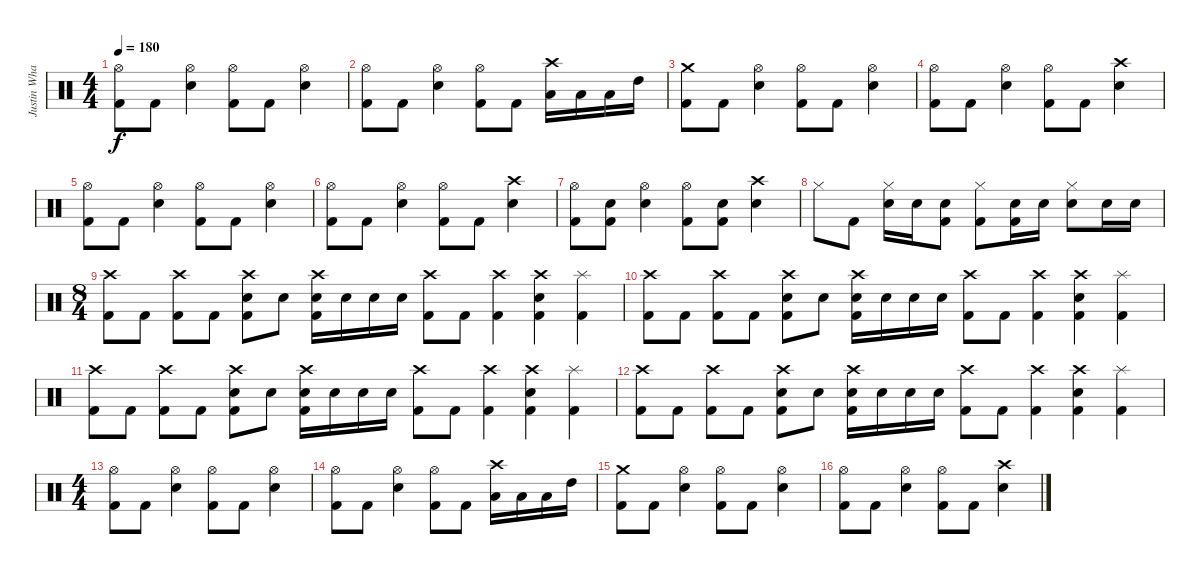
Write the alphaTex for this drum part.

\track ("Justin Wharton" "Justin Wha") {instrument percussion}
\staff {score}
\articulation defaults
\ts (4 4)
\tempo 180
\clef neutral
\ks c
("Kick (hit) 2" "Hi-Hat (open)").8{dy f} "Kick (hit) 2".8 ("Electric Snare (hit)" "Hi-Hat (open)").4 ("Kick (hit) 2" "Hi-Hat (open)").8 "Kick (hit) 2".8 ("Electric Snare (hit)" "Hi-Hat (open)").4 |
("Kick (hit) 2" "Hi-Hat (open)").8 "Kick (hit) 2".8 ("Electric Snare (hit)" "Hi-Hat (open)").4 ("Kick (hit) 2" "Hi-Hat (open)").8 "Kick (hit) 2".8 ("Low Floor Tom (hit)" "Crash high (hit)").16 "Low Floor Tom (hit)".16 "Low Tom (hit)".16 "High Tom (hit)".16 |
("Kick (hit) 2" "Crash medium (hit)").8 "Kick (hit) 2".8 ("Electric Snare (hit)" "Hi-Hat (open)").4 ("Kick (hit) 2" "Hi-Hat (open)").8 "Kick (hit) 2".8 ("Electric Snare (hit)" "Hi-Hat (open)").4 |
("Kick (hit) 2" "Hi-Hat (open)").8 "Kick (hit) 2".8 ("Electric Snare (hit)" "Hi-Hat (open)").4 ("Kick (hit) 2" "Hi-Hat (open)").8 "Kick (hit) 2".8 ("Electric Snare (hit)" "Crash high (hit)").4 |
("Kick (hit) 2" "Hi-Hat (open)").8 "Kick (hit) 2".8 ("Electric Snare (hit)" "Hi-Hat (open)").4 ("Kick (hit) 2" "Hi-Hat (open)").8 "Kick (hit) 2".8 ("Electric Snare (hit)" "Hi-Hat (open)").4 |
("Kick (hit) 2" "Hi-Hat (open)").8 "Kick (hit) 2".8 ("Electric Snare (hit)" "Hi-Hat (open)").4 ("Kick (hit) 2" "Hi-Hat (open)").8 "Kick (hit) 2".8 ("Electric Snare (hit)" "Crash high (hit)").4 |
("Kick (hit) 2" "Hi-Hat (open)").8 ("Kick (hit) 2" "Electric Snare (hit)").8 ("Electric Snare (hit)" "Hi-Hat (open)").4 ("Kick (hit) 2" "Hi-Hat (open)").8 ("Kick (hit) 2" "Electric Snare (hit)").8 ("Electric Snare (hit)" "Crash high (hit)").4 |
"Hi-Hat (closed)".8 "Kick (hit) 2".8 ("Electric Snare (hit)" "Hi-Hat (closed)").16 "Electric Snare (hit)".16 ("Kick (hit) 2" "Electric Snare (hit)").8 ("Kick (hit) 2" "Hi-Hat (closed)").8 ("Kick (hit) 2" "Electric Snare (hit)").16 "Electric Snare (hit)".16 ("Electric Snare (hit)" "Hi-Hat (closed)").8 "Electric Snare (hit)".16 "Electric Snare (hit)".16 |
\ts (8 4)
("Kick (hit) 2" "Crash high (hit)").8 "Kick (hit) 2".8 ("Kick (hit) 2" "Crash high (hit)").8 "Kick (hit) 2".8 ("Kick (hit) 2" "Electric Snare (hit)" "Crash high (hit)").8 "Electric Snare (hit)".8 ("Kick (hit) 2" "Electric Snare (hit)" "Crash high (hit)").16 "Electric Snare (hit)".16 "Electric Snare (hit)".16 "Electric Snare (hit)".16 ("Kick (hit) 2" "Crash high (hit)").8 "Kick (hit) 2".8 ("Kick (hit) 2" "Crash high (hit)").4 ("Kick (hit) 2" "Electric Snare (hit)" "Crash high (hit)").4 ("Kick (hit) 2" "Splash (hit)").4 |
("Kick (hit) 2" "Crash high (hit)").8 "Kick (hit) 2".8 ("Kick (hit) 2" "Crash high (hit)").8 "Kick (hit) 2".8 ("Kick (hit) 2" "Electric Snare (hit)" "Crash high (hit)").8 "Electric Snare (hit)".8 ("Kick (hit) 2" "Electric Snare (hit)" "Crash high (hit)").16 "Electric Snare (hit)".16 "Electric Snare (hit)".16 "Electric Snare (hit)".16 ("Kick (hit) 2" "Crash high (hit)").8 "Kick (hit) 2".8 ("Kick (hit) 2" "Crash high (hit)").4 ("Kick (hit) 2" "Electric Snare (hit)" "Crash high (hit)").4 ("Kick (hit) 2" "Splash (hit)").4 |
("Kick (hit) 2" "Crash high (hit)").8 "Kick (hit) 2".8 ("Kick (hit) 2" "Crash high (hit)").8 "Kick (hit) 2".8 ("Kick (hit) 2" "Electric Snare (hit)" "Crash high (hit)").8 "Electric Snare (hit)".8 ("Kick (hit) 2" "Electric Snare (hit)" "Crash high (hit)").16 "Electric Snare (hit)".16 "Electric Snare (hit)".16 "Electric Snare (hit)".16 ("Kick (hit) 2" "Crash high (hit)").8 "Kick (hit) 2".8 ("Kick (hit) 2" "Crash high (hit)").4 ("Kick (hit) 2" "Electric Snare (hit)" "Crash high (hit)").4 ("Kick (hit) 2" "Splash (hit)").4 |
("Kick (hit) 2" "Crash high (hit)").8 "Kick (hit) 2".8 ("Kick (hit) 2" "Crash high (hit)").8 "Kick (hit) 2".8 ("Kick (hit) 2" "Electric Snare (hit)" "Crash high (hit)").8 "Electric Snare (hit)".8 ("Kick (hit) 2" "Electric Snare (hit)" "Crash high (hit)").16 "Electric Snare (hit)".16 "Electric Snare (hit)".16 "Electric Snare (hit)".16 ("Kick (hit) 2" "Crash high (hit)").8 "Kick (hit) 2".8 ("Kick (hit) 2" "Crash high (hit)").4 ("Kick (hit) 2" "Electric Snare (hit)" "Crash high (hit)").4 ("Kick (hit) 2" "Splash (hit)").4 |
\ts (4 4)
("Kick (hit) 2" "Hi-Hat (open)").8 "Kick (hit) 2".8 ("Electric Snare (hit)" "Hi-Hat (open)").4 ("Kick (hit) 2" "Hi-Hat (open)").8 "Kick (hit) 2".8 ("Electric Snare (hit)" "Hi-Hat (open)").4 |
("Kick (hit) 2" "Hi-Hat (open)").8 "Kick (hit) 2".8 ("Electric Snare (hit)" "Hi-Hat (open)").4 ("Kick (hit) 2" "Hi-Hat (open)").8 "Kick (hit) 2".8 ("Low Floor Tom (hit)" "Crash high (hit)").16 "Low Floor Tom (hit)".16 "Low Tom (hit)".16 "High Tom (hit)".16 |
("Kick (hit) 2" "Crash medium (hit)").8 "Kick (hit) 2".8 ("Electric Snare (hit)" "Hi-Hat (open)").4 ("Kick (hit) 2" "Hi-Hat (open)").8 "Kick (hit) 2".8 ("Electric Snare (hit)" "Hi-Hat (open)").4 |
("Kick (hit) 2" "Hi-Hat (open)").8 "Kick (hit) 2".8 ("Electric Snare (hit)" "Hi-Hat (open)").4 ("Kick (hit) 2" "Hi-Hat (open)").8 "Kick (hit) 2".8 ("Electric Snare (hit)" "Crash high (hit)").4
